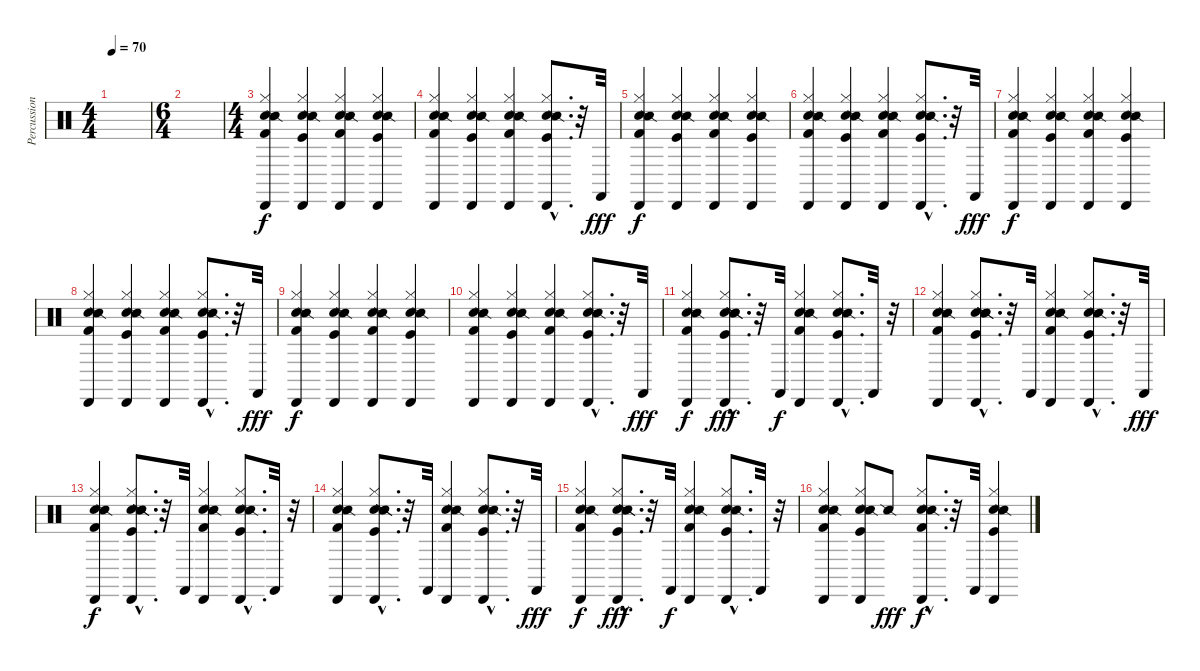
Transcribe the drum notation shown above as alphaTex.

\track ("Percussion" "Percussion") {instrument percussion}
\staff {score}
\articulation defaults
\ts (4 4)
\tempo 70
\clef neutral
\ks c
|
\ts (6 4)
|
\ts (4 4)
\section ("" "")
("Cabasa (hit)" "Electric Snare (hit)" "Snare (side stick) 2" "Hi-Hat (closed)" "Kick (hit) 2").4 ("Cabasa (hit)" "Snare (hit) 2" "Snare (side stick) 2" "Hi-Hat (closed)" "Kick (hit)").4 ("Cabasa (hit)" "Electric Snare (hit)" "Snare (side stick) 2" "Hi-Hat (closed)" "Kick (hit) 2").4 ("Cabasa (hit)" "Snare (hit) 2" "Snare (side stick) 2" "Hi-Hat (closed)" "Kick (hit)").4 |
("Cabasa (hit)" "Electric Snare (hit)" "Snare (side stick) 2" "Hi-Hat (closed)" "Kick (hit) 2").4 ("Cabasa (hit)" "Snare (hit) 2" "Snare (side stick) 2" "Hi-Hat (closed)" "Kick (hit)").4 ("Cabasa (hit)" "Electric Snare (hit)" "Snare (side stick) 2" "Hi-Hat (closed)" "Kick (hit) 2").4 ("Cabasa (hit)"{hac} "Snare (hit) 2"{hac} "Snare (side stick) 2"{hac} "Hi-Hat (closed)"{hac} "Kick (hit)"{hac}).8{d} r.32 "Castanets (hit)".32{dy fff} |
("Cabasa (hit)" "Electric Snare (hit)" "Snare (side stick) 2" "Hi-Hat (closed)" "Kick (hit) 2").4{dy f} ("Cabasa (hit)" "Snare (hit) 2" "Snare (side stick) 2" "Hi-Hat (closed)" "Kick (hit)").4 ("Cabasa (hit)" "Electric Snare (hit)" "Snare (side stick) 2" "Hi-Hat (closed)" "Kick (hit) 2").4 ("Cabasa (hit)" "Snare (hit) 2" "Snare (side stick) 2" "Hi-Hat (closed)" "Kick (hit)").4 |
("Cabasa (hit)" "Electric Snare (hit)" "Snare (side stick) 2" "Hi-Hat (closed)" "Kick (hit) 2").4 ("Cabasa (hit)" "Snare (hit) 2" "Snare (side stick) 2" "Hi-Hat (closed)" "Kick (hit)").4 ("Cabasa (hit)" "Electric Snare (hit)" "Snare (side stick) 2" "Hi-Hat (closed)" "Kick (hit) 2").4 ("Cabasa (hit)"{hac} "Snare (hit) 2"{hac} "Snare (side stick) 2"{hac} "Hi-Hat (closed)"{hac} "Kick (hit)"{hac}).8{d} r.32 "Castanets (hit)".32{dy fff} |
("Cabasa (hit)" "Electric Snare (hit)" "Snare (side stick) 2" "Hi-Hat (closed)" "Kick (hit) 2").4{dy f} ("Cabasa (hit)" "Snare (hit) 2" "Snare (side stick) 2" "Hi-Hat (closed)" "Kick (hit)").4 ("Cabasa (hit)" "Electric Snare (hit)" "Snare (side stick) 2" "Hi-Hat (closed)" "Kick (hit) 2").4 ("Cabasa (hit)" "Snare (hit) 2" "Snare (side stick) 2" "Hi-Hat (closed)" "Kick (hit)").4 |
("Cabasa (hit)" "Electric Snare (hit)" "Snare (side stick) 2" "Hi-Hat (closed)" "Kick (hit) 2").4 ("Cabasa (hit)" "Snare (hit) 2" "Snare (side stick) 2" "Hi-Hat (closed)" "Kick (hit)").4 ("Cabasa (hit)" "Electric Snare (hit)" "Snare (side stick) 2" "Hi-Hat (closed)" "Kick (hit) 2").4 ("Cabasa (hit)"{hac} "Snare (hit) 2"{hac} "Snare (side stick) 2"{hac} "Hi-Hat (closed)"{hac} "Kick (hit)"{hac}).8{d} r.32 "Castanets (hit)".32{dy fff} |
("Cabasa (hit)" "Electric Snare (hit)" "Snare (side stick) 2" "Hi-Hat (closed)" "Kick (hit) 2").4{dy f} ("Cabasa (hit)" "Snare (hit) 2" "Snare (side stick) 2" "Hi-Hat (closed)" "Kick (hit)").4 ("Cabasa (hit)" "Electric Snare (hit)" "Snare (side stick) 2" "Hi-Hat (closed)" "Kick (hit) 2").4 ("Cabasa (hit)" "Snare (hit) 2" "Snare (side stick) 2" "Hi-Hat (closed)" "Kick (hit)").4 |
("Cabasa (hit)" "Electric Snare (hit)" "Snare (side stick) 2" "Hi-Hat (closed)" "Kick (hit) 2").4 ("Cabasa (hit)" "Snare (hit) 2" "Snare (side stick) 2" "Hi-Hat (closed)" "Kick (hit)").4 ("Cabasa (hit)" "Electric Snare (hit)" "Snare (side stick) 2" "Hi-Hat (closed)" "Kick (hit) 2").4 ("Cabasa (hit)"{hac} "Snare (hit) 2"{hac} "Snare (side stick) 2"{hac} "Hi-Hat (closed)"{hac} "Kick (hit)"{hac}).8{d} r.32 "Castanets (hit)".32{dy fff} |
("Cabasa (hit)" "Electric Snare (hit)" "Snare (side stick) 2" "Hi-Hat (closed)" "Kick (hit) 2").4{dy f} ("Cabasa (hit)"{hac} "Snare (hit) 2"{hac} "Snare (side stick) 2"{hac} "Hi-Hat (closed)"{hac} "Kick (hit)"{hac} "Snare (side stick) 2"{hac}).8{d dy fff} r.32 "Castanets (hit)".32{dy f} ("Cabasa (hit)" "Electric Snare (hit)" "Snare (side stick) 2" "Hi-Hat (closed)" "Kick (hit) 2").4 ("Cabasa (hit)"{hac} "Snare (hit) 2"{hac} "Snare (side stick) 2"{hac} "Hi-Hat (closed)"{hac} "Kick (hit)"{hac}).8{d} "Castanets (hit)".32 r.32 |
("Cabasa (hit)" "Electric Snare (hit)" "Snare (side stick) 2" "Hi-Hat (closed)" "Kick (hit) 2").4 ("Cabasa (hit)"{hac} "Snare (hit) 2"{hac} "Snare (side stick) 2"{hac} "Hi-Hat (closed)"{hac} "Kick (hit)"{hac} "Snare (side stick) 2"{hac}).8{d} r.32 "Castanets (hit)".32 ("Cabasa (hit)" "Electric Snare (hit)" "Snare (side stick) 2" "Hi-Hat (closed)" "Kick (hit) 2").4 ("Cabasa (hit)"{hac} "Snare (hit) 2"{hac} "Snare (side stick) 2"{hac} "Hi-Hat (closed)"{hac} "Kick (hit)"{hac}).8{d} r.32 "Castanets (hit)".32{dy fff} |
("Cabasa (hit)" "Electric Snare (hit)" "Snare (side stick) 2" "Hi-Hat (closed)" "Kick (hit) 2").4{dy f} ("Cabasa (hit)"{hac} "Snare (hit) 2"{hac} "Snare (side stick) 2"{hac} "Hi-Hat (closed)"{hac} "Kick (hit)"{hac} "Snare (side stick) 2"{hac}).8{d} r.32 "Castanets (hit)".32 ("Cabasa (hit)" "Electric Snare (hit)" "Snare (side stick) 2" "Hi-Hat (closed)" "Kick (hit) 2").4 ("Cabasa (hit)"{hac} "Snare (hit) 2"{hac} "Snare (side stick) 2"{hac} "Hi-Hat (closed)"{hac} "Kick (hit)"{hac}).8{d} "Castanets (hit)".32 r.32 |
("Cabasa (hit)" "Electric Snare (hit)" "Snare (side stick) 2" "Hi-Hat (closed)" "Kick (hit) 2").4 ("Cabasa (hit)"{hac} "Snare (hit) 2"{hac} "Snare (side stick) 2"{hac} "Hi-Hat (closed)"{hac} "Kick (hit)"{hac} "Snare (side stick) 2"{hac}).8{d} r.32 "Castanets (hit)".32 ("Cabasa (hit)" "Electric Snare (hit)" "Snare (side stick) 2" "Hi-Hat (closed)" "Kick (hit) 2").4 ("Cabasa (hit)"{hac} "Snare (hit) 2"{hac} "Snare (side stick) 2"{hac} "Hi-Hat (closed)"{hac} "Kick (hit)"{hac}).8{d} r.32 "Castanets (hit)".32{dy fff} |
("Cabasa (hit)" "Electric Snare (hit)" "Snare (side stick) 2" "Hi-Hat (closed)" "Kick (hit) 2").4{dy f} ("Cabasa (hit)"{hac} "Snare (hit) 2"{hac} "Snare (side stick) 2"{hac} "Hi-Hat (closed)"{hac} "Kick (hit)"{hac} "Snare (side stick) 2"{hac}).8{d dy fff} r.32 "Castanets (hit)".32{dy f} ("Cabasa (hit)" "Electric Snare (hit)" "Snare (side stick) 2" "Hi-Hat (closed)" "Kick (hit) 2").4 ("Cabasa (hit)"{hac} "Snare (hit) 2"{hac} "Snare (side stick) 2"{hac} "Hi-Hat (closed)"{hac} "Kick (hit)"{hac}).8{d} "Castanets (hit)".32 r.32 |
("Cabasa (hit)" "Electric Snare (hit)" "Snare (side stick) 2" "Hi-Hat (closed)" "Kick (hit) 2").4 ("Cabasa (hit)" "Snare (hit) 2" "Snare (side stick) 2" "Hi-Hat (closed)" "Kick (hit)").8 "Snare (side stick) 2".8{dy fff} ("Cabasa (hit)"{hac} "Electric Snare (hit)"{hac} "Snare (side stick) 2"{hac} "Hi-Hat (closed)"{hac} "Kick (hit) 2"{hac}).8{d dy f} r.32 "Castanets (hit)".32 ("Cabasa (hit)" "Snare (hit) 2" "Snare (side stick) 2" "Hi-Hat (closed)" "Kick (hit)").4
